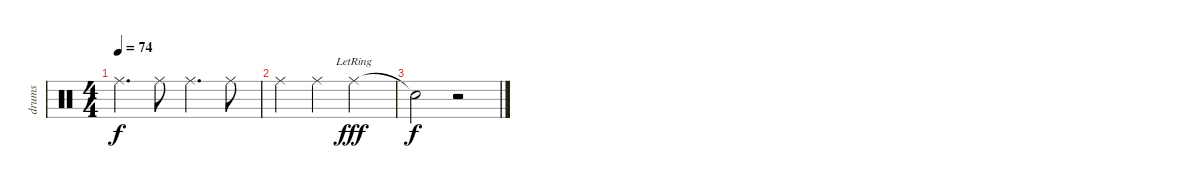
\track ("drums" "drums") {instrument percussion}
\staff {score}
\articulation defaults
\ts (4 4)
\tempo 74
\clef neutral
\ks c "Ride (middle)".4{d dy f} "Ride (middle)".8 "Ride (middle)".4{d} "Ride (middle)".8
|
"Ride (middle)".4 "Ride (middle)".4 "Ride (middle)"{lr}.2{dy fff} |
"Snare (hit)"{t}.2{dy f} r.2
